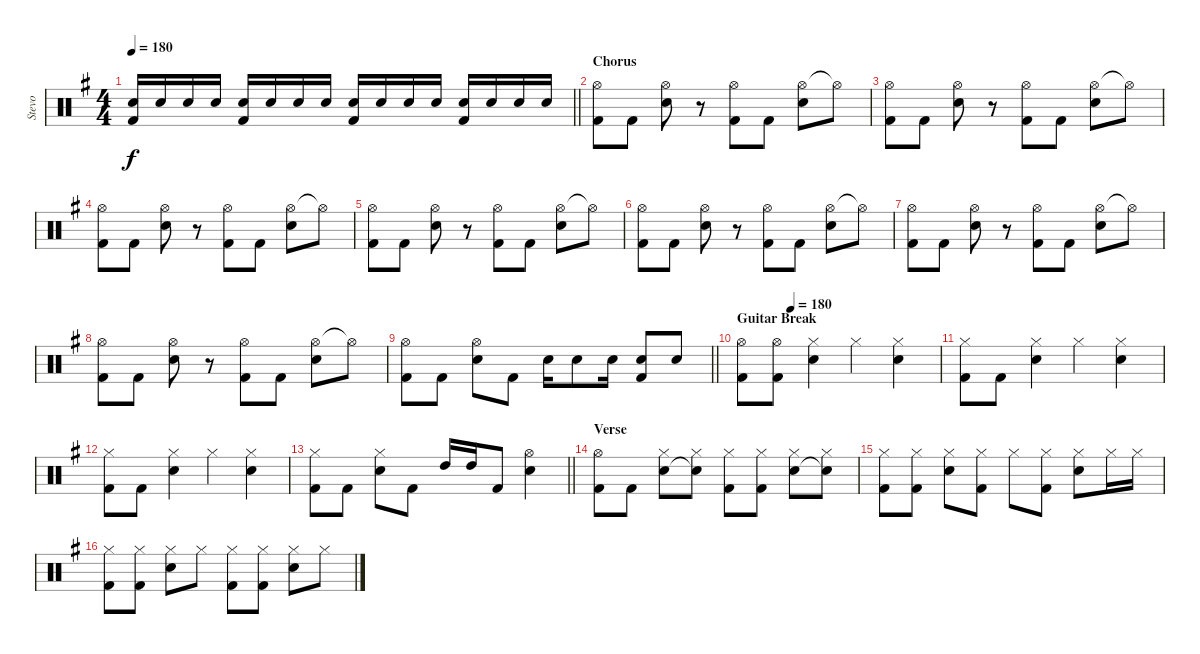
\track ("Stevo" "Stevo") {instrument percussion}
\staff {score}
\articulation defaults
\ts (4 4)
\tempo 180
\clef neutral
\barLineRight lightlight
\ks g
("Snare (hit) 2" "Kick (hit) 2").16{dy f} "Snare (hit) 2".16 "Snare (hit) 2".16 "Snare (hit) 2".16 ("Snare (hit) 2" "Kick (hit) 2").16 "Snare (hit) 2".16 "Snare (hit) 2".16 "Snare (hit) 2".16 ("Snare (hit) 2" "Kick (hit) 2").16 "Snare (hit) 2".16 "Snare (hit) 2".16 "Snare (hit) 2".16 ("Snare (hit) 2" "Kick (hit) 2").16 "Snare (hit) 2".16 "Snare (hit) 2".16 "Snare (hit) 2".16 |
\section ("" "Chorus")
("Hi-Hat (open)" "Kick (hit) 2").8 "Kick (hit) 2".8 ("Hi-Hat (open)" "Snare (hit) 2").8 r.8 ("Hi-Hat (open)" "Kick (hit) 2").8 "Kick (hit) 2".8 ("Hi-Hat (open)" "Snare (hit) 2").8 "Hi-Hat (open)"{t}.8 |
("Hi-Hat (open)" "Kick (hit) 2").8 "Kick (hit) 2".8 ("Hi-Hat (open)" "Snare (hit) 2").8 r.8 ("Hi-Hat (open)" "Kick (hit) 2").8 "Kick (hit) 2".8 ("Hi-Hat (open)" "Snare (hit) 2").8 "Hi-Hat (open)"{t}.8 |
("Hi-Hat (open)" "Kick (hit) 2").8 "Kick (hit) 2".8 ("Hi-Hat (open)" "Snare (hit) 2").8 r.8 ("Hi-Hat (open)" "Kick (hit) 2").8 "Kick (hit) 2".8 ("Hi-Hat (open)" "Snare (hit) 2").8 "Hi-Hat (open)"{t}.8 |
("Hi-Hat (open)" "Kick (hit) 2").8 "Kick (hit) 2".8 ("Hi-Hat (open)" "Snare (hit) 2").8 r.8 ("Hi-Hat (open)" "Kick (hit) 2").8 "Kick (hit) 2".8 ("Hi-Hat (open)" "Snare (hit) 2").8 "Hi-Hat (open)"{t}.8 |
("Hi-Hat (open)" "Kick (hit) 2").8 "Kick (hit) 2".8 ("Hi-Hat (open)" "Snare (hit) 2").8 r.8 ("Hi-Hat (open)" "Kick (hit) 2").8 "Kick (hit) 2".8 ("Hi-Hat (open)" "Snare (hit) 2").8 "Hi-Hat (open)"{t}.8 |
("Hi-Hat (open)" "Kick (hit) 2").8 "Kick (hit) 2".8 ("Hi-Hat (open)" "Snare (hit) 2").8 r.8 ("Hi-Hat (open)" "Kick (hit) 2").8 "Kick (hit) 2".8 ("Hi-Hat (open)" "Snare (hit) 2").8 "Hi-Hat (open)"{t}.8 |
("Hi-Hat (open)" "Kick (hit) 2").8 "Kick (hit) 2".8 ("Hi-Hat (open)" "Snare (hit) 2").8 r.8 ("Hi-Hat (open)" "Kick (hit) 2").8 "Kick (hit) 2".8 ("Hi-Hat (open)" "Snare (hit) 2").8 "Hi-Hat (open)"{t}.8 |
\barLineRight lightlight
("Hi-Hat (open)" "Kick (hit) 2").8 "Kick (hit) 2".8 ("Hi-Hat (open)" "Snare (hit) 2").8 "Kick (hit) 2".8 "Snare (hit) 2".16 "Snare (hit) 2".8 "Snare (hit) 2".16 ("Snare (hit) 2" "Kick (hit) 2").8 "Snare (hit) 2".8 |
\section ("" "Guitar Break")
\tempo (180 0.25)
("Hi-Hat (open)" "Kick (hit) 2").8 ("Hi-Hat (open)" "Kick (hit) 2").8 ("Hi-Hat (closed)" "Snare (hit) 2").4 "Hi-Hat (closed)".4 ("Hi-Hat (closed)" "Snare (hit) 2").4 |
("Hi-Hat (closed)" "Kick (hit) 2").8 "Kick (hit) 2".8 ("Hi-Hat (closed)" "Snare (hit) 2").4 "Hi-Hat (closed)".4 ("Hi-Hat (closed)" "Snare (hit) 2").4 |
("Hi-Hat (closed)" "Kick (hit) 2").8 "Kick (hit) 2".8 ("Hi-Hat (closed)" "Snare (hit) 2").4 "Hi-Hat (closed)".4 ("Hi-Hat (closed)" "Snare (hit) 2").4 |
\barLineRight lightlight
("Hi-Hat (closed)" "Kick (hit) 2").8 "Kick (hit) 2".8 ("Hi-Hat (closed)" "Snare (hit) 2").8 "Kick (hit) 2".8 "High Tom (hit)".16 "High Tom (hit)".16 "Kick (hit) 2".8 ("Hi-Hat (open)" "Snare (hit) 2").4 |
\section ("" "Verse")
("Hi-Hat (open)" "Kick (hit) 2").8 "Kick (hit) 2".8 ("Hi-Hat (closed)" "Snare (hit) 2").8 ("Hi-Hat (closed)" "Snare (hit) 2"{t}).8 ("Hi-Hat (closed)" "Kick (hit) 2").8 ("Hi-Hat (closed)" "Kick (hit) 2").8 ("Hi-Hat (closed)" "Snare (hit) 2").8 ("Hi-Hat (closed)" "Snare (hit) 2"{t}).8 |
("Hi-Hat (closed)" "Kick (hit) 2").8 ("Hi-Hat (closed)" "Kick (hit) 2").8 ("Hi-Hat (closed)" "Snare (hit) 2").8 ("Hi-Hat (closed)" "Kick (hit) 2").8 "Hi-Hat (closed)".8 ("Hi-Hat (closed)" "Kick (hit) 2").8 ("Hi-Hat (closed)" "Snare (hit) 2").8 "Hi-Hat (closed)".16 "Hi-Hat (closed)".16 |
("Hi-Hat (closed)" "Kick (hit) 2").8 ("Hi-Hat (closed)" "Kick (hit) 2").8 ("Hi-Hat (closed)" "Snare (hit) 2").8 "Hi-Hat (closed)".8 ("Hi-Hat (closed)" "Kick (hit) 2").8 ("Hi-Hat (closed)" "Kick (hit) 2").8 ("Hi-Hat (closed)" "Snare (hit) 2").8 "Hi-Hat (closed)".8
